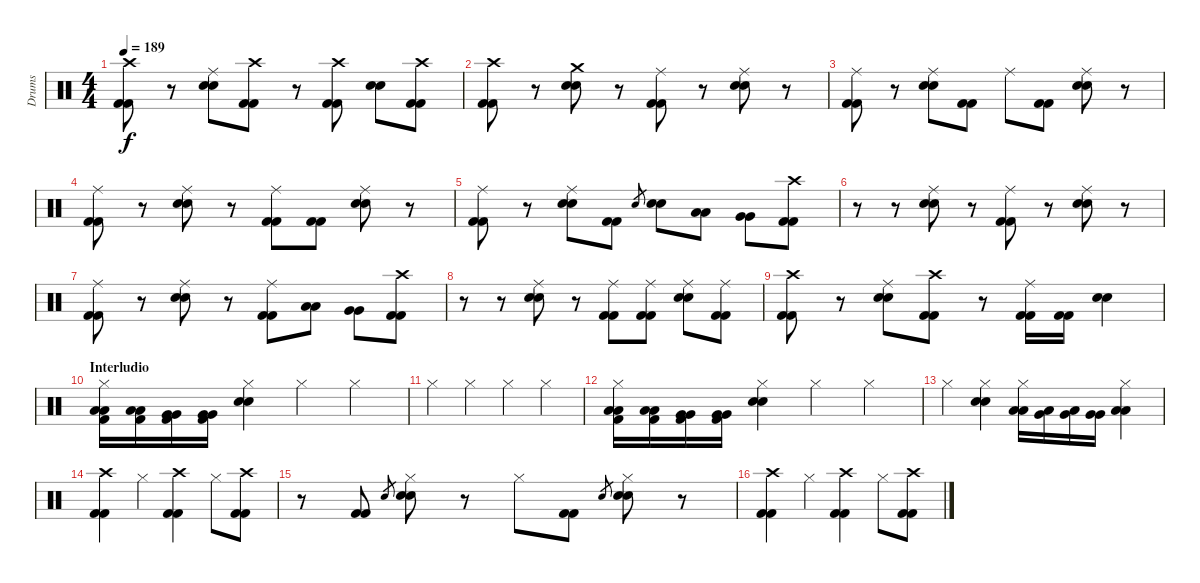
\track ("Drums" "Drums") {instrument percussion}
\staff {score}
\articulation defaults
\ts (4 4)
\tempo 189
\clef neutral
\ks c
("Crash high (hit)" "Kick (hit) 2" "Kick (hit) 2").8{dy f} r.8 ("Ride (middle)" "Snare (hit) 2" "Snare (hit) 2").8 ("Crash high (hit)" "Kick (hit) 2" "Kick (hit) 2").8 r.8 ("Crash high (hit)" "Kick (hit) 2" "Kick (hit) 2").8 ("Snare (hit) 2" "Snare (hit) 2").8 ("Crash high (hit)" "Kick (hit) 2" "Kick (hit) 2").8 |
("Crash high (hit)" "Kick (hit) 2" "Kick (hit) 2").8 r.8 ("Crash medium (hit)" "Snare (hit) 2" "Snare (hit) 2").8 r.8 ("Ride (middle)" "Kick (hit) 2" "Kick (hit) 2").8 r.8 ("Ride (middle)" "Snare (hit) 2" "Snare (hit) 2").8 r.8 |
("Ride (middle)" "Kick (hit) 2" "Kick (hit) 2").8 r.8 ("Ride (middle)" "Snare (hit) 2" "Snare (hit) 2").8 ("Kick (hit) 2" "Kick (hit) 2").8 "Ride (middle)".8 ("Kick (hit) 2" "Kick (hit) 2").8 ("Ride (middle)" "Snare (hit) 2" "Snare (hit) 2").8 r.8 |
("Ride (middle)" "Kick (hit) 2" "Kick (hit) 2").8 r.8 ("Ride (middle)" "Snare (hit) 2" "Snare (hit) 2").8 r.8 ("Ride (middle)" "Kick (hit) 2" "Kick (hit) 2").8 ("Kick (hit) 2" "Kick (hit) 2").8 ("Ride (middle)" "Snare (hit) 2" "Snare (hit) 2").8 r.8 |
("Ride (middle)" "Kick (hit) 2" "Kick (hit) 2").8 r.8 ("Ride (middle)" "Snare (hit) 2" "Snare (hit) 2").8 ("Kick (hit) 2" "Kick (hit) 2").8 "Snare (hit) 2".8{gr} ("Snare (hit) 2" "Snare (hit) 2").8 ("Low Tom (hit)" "Low Tom (hit)").8 ("Very Low Tom (hit)" "Very Low Tom (hit)").8 ("Crash high (hit)" "Kick (hit) 2" "Kick (hit) 2").8 |
r.8 r.8 ("Ride (middle)" "Snare (hit) 2" "Snare (hit) 2").8 r.8 ("Ride (middle)" "Kick (hit) 2" "Kick (hit) 2").8 r.8 ("Ride (middle)" "Snare (hit) 2" "Snare (hit) 2").8 r.8 |
("Ride (middle)" "Kick (hit) 2" "Kick (hit) 2").8 r.8 ("Ride (middle)" "Snare (hit) 2" "Snare (hit) 2").8 r.8 ("Ride (middle)" "Kick (hit) 2" "Kick (hit) 2").8 ("Low Tom (hit)" "Low Tom (hit)").8 ("Very Low Tom (hit)" "Very Low Tom (hit)").8 ("Crash high (hit)" "Kick (hit) 2" "Kick (hit) 2").8 |
r.8 r.8 ("Ride (middle)" "Snare (hit) 2" "Snare (hit) 2").8 r.8 ("Ride (middle)" "Kick (hit) 2" "Kick (hit) 2").8 ("Ride (middle)" "Kick (hit) 2" "Kick (hit) 2").8 ("Ride (middle)" "Snare (hit) 2" "Snare (hit) 2").8 ("Ride (middle)" "Kick (hit) 2" "Kick (hit) 2").8 |
("Crash high (hit)" "Kick (hit) 2" "Kick (hit) 2").8 r.8 ("Ride (middle)" "Snare (hit) 2" "Snare (hit) 2").8 ("Crash high (hit)" "Kick (hit) 2" "Kick (hit) 2").8 r.8 ("Ride (middle)" "Kick (hit) 2" "Kick (hit) 2").16 ("Kick (hit) 2" "Kick (hit) 2").16 ("Snare (hit) 2" "Snare (hit) 2").4 |
\section ("" "Interludio")
("Hi-Hat (closed)" "Low Tom (hit)" "Low Tom (hit)" "Kick (hit) 2").16 ("Low Tom (hit)" "Low Tom (hit)" "Kick (hit) 2").16 ("Very Low Tom (hit)" "Very Low Tom (hit)" "Kick (hit) 2").16 ("Very Low Tom (hit)" "Very Low Tom (hit)" "Kick (hit) 2").16 ("Hi-Hat (closed)" "Snare (hit) 2" "Snare (hit) 2").4 "Hi-Hat (closed)".4 "Hi-Hat (closed)".4 |
"Hi-Hat (closed)".4 "Hi-Hat (closed)".4 "Hi-Hat (closed)".4 "Hi-Hat (closed)".4 |
("Hi-Hat (closed)" "Low Tom (hit)" "Low Tom (hit)" "Kick (hit) 2").16 ("Low Tom (hit)" "Low Tom (hit)" "Kick (hit) 2").16 ("Very Low Tom (hit)" "Very Low Tom (hit)" "Kick (hit) 2").16 ("Very Low Tom (hit)" "Very Low Tom (hit)" "Kick (hit) 2").16 ("Hi-Hat (closed)" "Snare (hit) 2" "Snare (hit) 2").4 "Hi-Hat (closed)".4 "Hi-Hat (closed)".4 |
"Hi-Hat (closed)".4 ("Hi-Hat (closed)" "Snare (hit) 2" "Snare (hit) 2").4 ("Hi-Hat (closed)" "Low Tom (hit)" "Low Tom (hit)").16 ("Very Low Tom (hit)" "Low Tom (hit)").16 ("Very Low Tom (hit)" "Low Floor Tom (hit)").16 ("Very Low Tom (hit)" "Very Low Tom (hit)").16 ("Hi-Hat (closed)" "Low Floor Tom (hit)" "Low Floor Tom (hit)").4 |
("Crash high (hit)" "Kick (hit) 2" "Kick (hit) 2").4 "Hi-Hat (closed)".4 ("Crash high (hit)" "Kick (hit) 2" "Kick (hit) 2").4 "Hi-Hat (closed)".8 ("Crash high (hit)" "Kick (hit) 2" "Kick (hit) 2").8 |
r.8 ("Kick (hit) 2" "Kick (hit) 2").8 "Snare (hit) 2".8{gr} ("Hi-Hat (closed)" "Snare (hit) 2" "Snare (hit) 2").8 r.8 "Hi-Hat (closed)".8 ("Kick (hit) 2" "Kick (hit) 2").8 "Snare (hit) 2".8{gr} ("Hi-Hat (closed)" "Snare (hit) 2" "Snare (hit) 2").8 r.8 |
("Crash high (hit)" "Kick (hit) 2" "Kick (hit) 2").4 "Hi-Hat (closed)".4 ("Crash high (hit)" "Kick (hit) 2" "Kick (hit) 2").4 "Hi-Hat (closed)".8 ("Crash high (hit)" "Kick (hit) 2" "Kick (hit) 2").8
